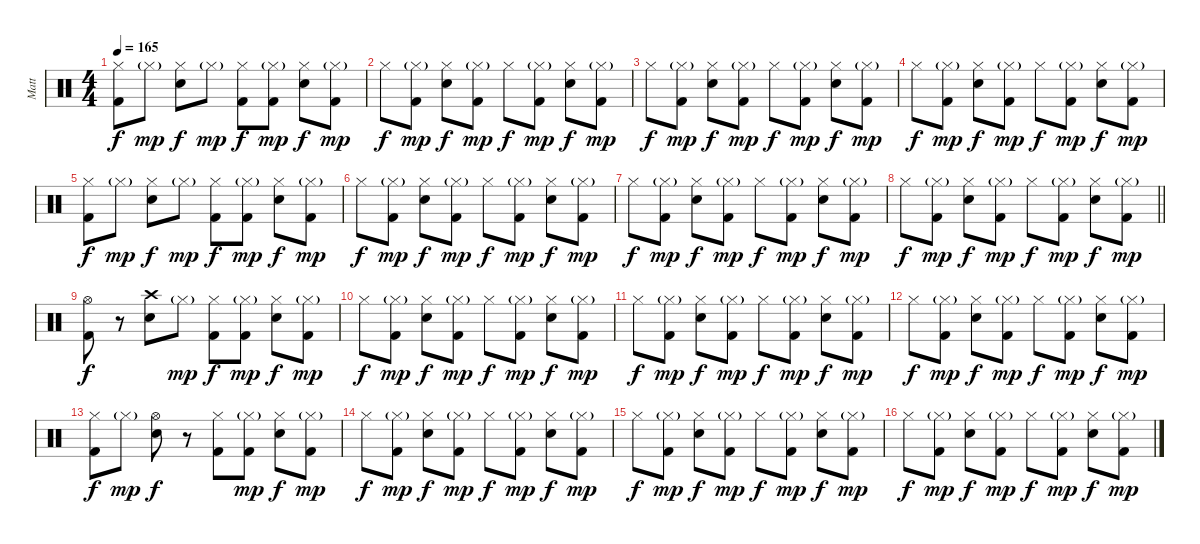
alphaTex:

\track ("Matt" "Matt") {instrument percussion}
\staff {score}
\articulation defaults
\ts (4 4)
\tempo 165
\clef neutral
\ks c
("Hi-Hat (closed)" "Kick (hit) 2").8{dy f} "Hi-Hat (closed)"{g}.8{dy mp} ("Hi-Hat (closed)" "Snare (hit) 2").8{dy f} "Hi-Hat (closed)"{g}.8{dy mp} ("Hi-Hat (closed)" "Kick (hit) 2").8{dy f} ("Hi-Hat (closed)"{g} "Kick (hit) 2").8{dy mp} ("Hi-Hat (closed)" "Snare (hit) 2").8{dy f} ("Hi-Hat (closed)"{g} "Kick (hit) 2").8{dy mp} |
"Hi-Hat (closed)".8{dy f} ("Hi-Hat (closed)"{g} "Kick (hit) 2").8{dy mp} ("Hi-Hat (closed)" "Snare (hit) 2").8{dy f} ("Hi-Hat (closed)"{g} "Kick (hit) 2").8{dy mp} "Hi-Hat (closed)".8{dy f} ("Hi-Hat (closed)"{g} "Kick (hit) 2").8{dy mp} ("Hi-Hat (closed)" "Snare (hit) 2").8{dy f} ("Hi-Hat (closed)"{g} "Kick (hit) 2").8{dy mp} |
"Hi-Hat (closed)".8{dy f} ("Hi-Hat (closed)"{g} "Kick (hit) 2").8{dy mp} ("Hi-Hat (closed)" "Snare (hit) 2").8{dy f} ("Hi-Hat (closed)"{g} "Kick (hit) 2").8{dy mp} "Hi-Hat (closed)".8{dy f} ("Hi-Hat (closed)"{g} "Kick (hit) 2").8{dy mp} ("Hi-Hat (closed)" "Snare (hit) 2").8{dy f} ("Hi-Hat (closed)"{g} "Kick (hit) 2").8{dy mp} |
"Hi-Hat (closed)".8{dy f} ("Hi-Hat (closed)"{g} "Kick (hit) 2").8{dy mp} ("Hi-Hat (closed)" "Snare (hit) 2").8{dy f} ("Hi-Hat (closed)"{g} "Kick (hit) 2").8{dy mp} "Hi-Hat (closed)".8{dy f} ("Hi-Hat (closed)"{g} "Kick (hit) 2").8{dy mp} ("Hi-Hat (closed)" "Snare (hit) 2").8{dy f} ("Hi-Hat (closed)"{g} "Kick (hit) 2").8{dy mp} |
("Hi-Hat (closed)" "Kick (hit) 2").8{dy f} "Hi-Hat (closed)"{g}.8{dy mp} ("Hi-Hat (closed)" "Snare (hit) 2").8{dy f} "Hi-Hat (closed)"{g}.8{dy mp} ("Hi-Hat (closed)" "Kick (hit) 2").8{dy f} ("Hi-Hat (closed)"{g} "Kick (hit) 2").8{dy mp} ("Hi-Hat (closed)" "Snare (hit) 2").8{dy f} ("Hi-Hat (closed)"{g} "Kick (hit) 2").8{dy mp} |
"Hi-Hat (closed)".8{dy f} ("Hi-Hat (closed)"{g} "Kick (hit) 2").8{dy mp} ("Hi-Hat (closed)" "Snare (hit) 2").8{dy f} ("Hi-Hat (closed)"{g} "Kick (hit) 2").8{dy mp} "Hi-Hat (closed)".8{dy f} ("Hi-Hat (closed)"{g} "Kick (hit) 2").8{dy mp} ("Hi-Hat (closed)" "Snare (hit) 2").8{dy f} ("Hi-Hat (closed)"{g} "Kick (hit) 2").8{dy mp} |
"Hi-Hat (closed)".8{dy f} ("Hi-Hat (closed)"{g} "Kick (hit) 2").8{dy mp} ("Hi-Hat (closed)" "Snare (hit) 2").8{dy f} ("Hi-Hat (closed)"{g} "Kick (hit) 2").8{dy mp} "Hi-Hat (closed)".8{dy f} ("Hi-Hat (closed)"{g} "Kick (hit) 2").8{dy mp} ("Hi-Hat (closed)" "Snare (hit) 2").8{dy f} ("Hi-Hat (closed)"{g} "Kick (hit) 2").8{dy mp} |
\barLineRight lightlight "Hi-Hat (closed)".8{dy f}
("Hi-Hat (closed)"{g} "Kick (hit) 2").8{dy mp} ("Hi-Hat (closed)" "Snare (hit) 2").8{dy f} ("Hi-Hat (closed)"{g} "Kick (hit) 2").8{dy mp} "Hi-Hat (closed)".8{dy f} ("Hi-Hat (closed)"{g} "Kick (hit) 2").8{dy mp} ("Hi-Hat (closed)" "Snare (hit) 2").8{dy f} ("Hi-Hat (closed)"{g} "Kick (hit) 2").8{dy mp} |
("Hi-Hat (open)" "Kick (hit) 2").8{dy f} r.8 ("Crash high (hit)" "Snare (hit) 2").8 "Hi-Hat (closed)"{g}.8{dy mp} ("Hi-Hat (closed)" "Kick (hit) 2").8{dy f} ("Hi-Hat (closed)"{g} "Kick (hit) 2").8{dy mp} ("Hi-Hat (closed)" "Snare (hit) 2").8{dy f} ("Hi-Hat (closed)"{g} "Kick (hit) 2").8{dy mp} |
"Hi-Hat (closed)".8{dy f} ("Hi-Hat (closed)"{g} "Kick (hit) 2").8{dy mp} ("Hi-Hat (closed)" "Snare (hit) 2").8{dy f} ("Hi-Hat (closed)"{g} "Kick (hit) 2").8{dy mp} "Hi-Hat (closed)".8{dy f} ("Hi-Hat (closed)"{g} "Kick (hit) 2").8{dy mp} ("Hi-Hat (closed)" "Snare (hit) 2").8{dy f} ("Hi-Hat (closed)"{g} "Kick (hit) 2").8{dy mp} |
"Hi-Hat (closed)".8{dy f} ("Hi-Hat (closed)"{g} "Kick (hit) 2").8{dy mp} ("Hi-Hat (closed)" "Snare (hit) 2").8{dy f} ("Hi-Hat (closed)"{g} "Kick (hit) 2").8{dy mp} "Hi-Hat (closed)".8{dy f} ("Hi-Hat (closed)"{g} "Kick (hit) 2").8{dy mp} ("Hi-Hat (closed)" "Snare (hit) 2").8{dy f} ("Hi-Hat (closed)"{g} "Kick (hit) 2").8{dy mp} |
"Hi-Hat (closed)".8{dy f} ("Hi-Hat (closed)"{g} "Kick (hit) 2").8{dy mp} ("Hi-Hat (closed)" "Snare (hit) 2").8{dy f} ("Hi-Hat (closed)"{g} "Kick (hit) 2").8{dy mp} "Hi-Hat (closed)".8{dy f} ("Hi-Hat (closed)"{g} "Kick (hit) 2").8{dy mp} ("Hi-Hat (closed)" "Snare (hit) 2").8{dy f} ("Hi-Hat (closed)"{g} "Kick (hit) 2").8{dy mp} |
("Hi-Hat (closed)" "Kick (hit) 2").8{dy f} "Hi-Hat (closed)"{g}.8{dy mp} ("Hi-Hat (open)" "Snare (hit) 2").8{dy f} r.8 ("Hi-Hat (closed)" "Kick (hit) 2").8 ("Hi-Hat (closed)"{g} "Kick (hit) 2").8{dy mp} ("Hi-Hat (closed)" "Snare (hit) 2").8{dy f} ("Hi-Hat (closed)"{g} "Kick (hit) 2").8{dy mp} |
"Hi-Hat (closed)".8{dy f} ("Hi-Hat (closed)"{g} "Kick (hit) 2").8{dy mp} ("Hi-Hat (closed)" "Snare (hit) 2").8{dy f} ("Hi-Hat (closed)"{g} "Kick (hit) 2").8{dy mp} "Hi-Hat (closed)".8{dy f} ("Hi-Hat (closed)"{g} "Kick (hit) 2").8{dy mp} ("Hi-Hat (closed)" "Snare (hit) 2").8{dy f} ("Hi-Hat (closed)"{g} "Kick (hit) 2").8{dy mp} |
"Hi-Hat (closed)".8{dy f} ("Hi-Hat (closed)"{g} "Kick (hit) 2").8{dy mp} ("Hi-Hat (closed)" "Snare (hit) 2").8{dy f} ("Hi-Hat (closed)"{g} "Kick (hit) 2").8{dy mp} "Hi-Hat (closed)".8{dy f} ("Hi-Hat (closed)"{g} "Kick (hit) 2").8{dy mp} ("Hi-Hat (closed)" "Snare (hit) 2").8{dy f} ("Hi-Hat (closed)"{g} "Kick (hit) 2").8{dy mp} |
"Hi-Hat (closed)".8{dy f} ("Hi-Hat (closed)"{g} "Kick (hit) 2").8{dy mp} ("Hi-Hat (closed)" "Snare (hit) 2").8{dy f} ("Hi-Hat (closed)"{g} "Kick (hit) 2").8{dy mp} "Hi-Hat (closed)".8{dy f} ("Hi-Hat (closed)"{g} "Kick (hit) 2").8{dy mp} ("Hi-Hat (closed)" "Snare (hit) 2").8{dy f} ("Hi-Hat (closed)"{g} "Kick (hit) 2").8{dy mp}
